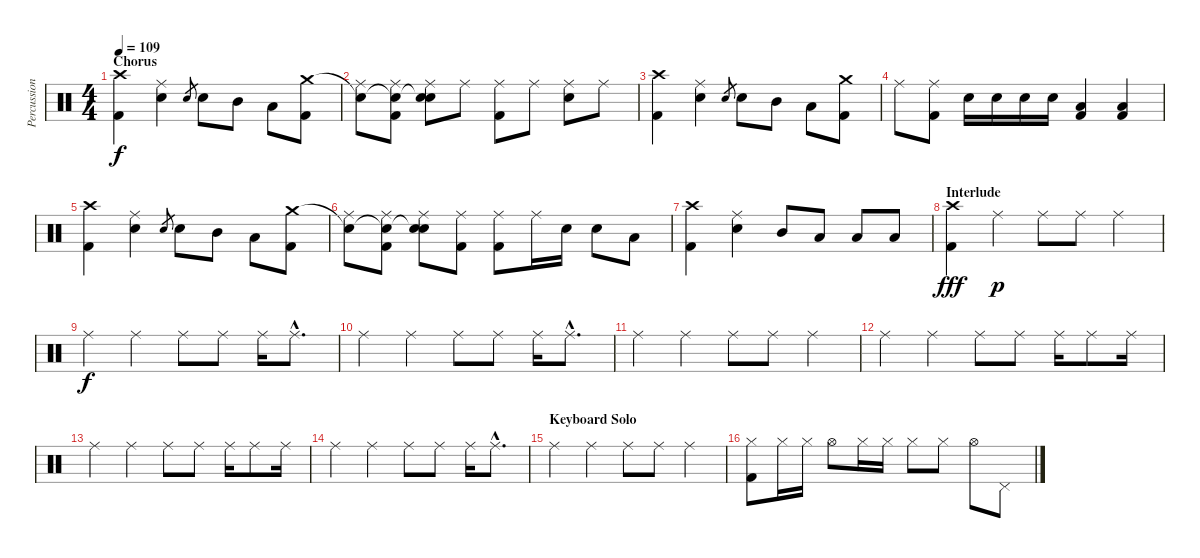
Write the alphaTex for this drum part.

\track ("Percussion" "Percussion") {instrument percussion}
\staff {score}
\articulation defaults
\ts (4 4)
\section ("" "Chorus")
\tempo 109
\clef neutral
\ks c
("Crash high (hit)" "Kick (hit) 2").4{dy f} ("Ride (middle)" "Electric Snare (hit)").4 "Electric Snare (hit)".8{gr} "Electric Snare (hit)".8 "Mid Tom (hit)".8 "Low Tom (hit)".8 ("Crash medium (hit)" "Kick (hit) 2").8 |
("Snare (hit)"{t} "Ride (middle)").8 ("Snare (hit)"{t} "Ride (middle)" "Kick (hit) 2").8 ("Snare (hit)"{t} "Ride (middle)" "Electric Snare (hit)").8 "Ride (middle)".8 ("Ride (middle)" "Kick (hit) 2").8 "Ride (middle)".8 ("Ride (middle)" "Electric Snare (hit)").8 "Ride (middle)".8 |
("Crash high (hit)" "Kick (hit) 2").4 ("Ride (middle)" "Electric Snare (hit)").4 "Electric Snare (hit)".8{gr} "Electric Snare (hit)".8 "Mid Tom (hit)".8 "Low Tom (hit)".8 ("Crash medium (hit)" "Kick (hit) 2").8 |
"Ride (middle)".8 ("Ride (middle)" "Kick (hit) 2").8 "Electric Snare (hit)".16 "Electric Snare (hit)".16 "Electric Snare (hit)".16 "Electric Snare (hit)".16 ("Low Tom (hit)" "Kick (hit) 2").4 ("Low Tom (hit)" "Kick (hit) 2").4 |
("Crash high (hit)" "Kick (hit) 2").4 ("Ride (middle)" "Electric Snare (hit)").4 "Electric Snare (hit)".8{gr} "Electric Snare (hit)".8 "Mid Tom (hit)".8 "Low Tom (hit)".8 ("Crash medium (hit)" "Kick (hit) 2").8 |
("Snare (hit)"{t} "Ride (middle)").8 ("Snare (hit)"{t} "Ride (middle)" "Kick (hit) 2").8 ("Snare (hit)"{t} "Ride (middle)" "Electric Snare (hit)").8 ("Ride (middle)" "Kick (hit) 2").8 ("Ride (middle)" "Kick (hit) 2").8 "Ride (middle)".16 "Electric Snare (hit)".16 "Electric Snare (hit)".8 "Low Tom (hit)".8 |
("Crash high (hit)" "Kick (hit) 2").4 ("Ride (middle)" "Electric Snare (hit)").4 "Mid Tom (hit)".8 "Low Tom (hit)".8 "Low Tom (hit)".8 "Low Tom (hit)".8 |
\section ("" "Interlude")
("Crash high (hit)" "Kick (hit) 2").4{dy fff} "Ride (middle)".4{dy p} "Ride (middle)".8 "Ride (middle)".8 "Ride (middle)".4 |
"Ride (middle)".4{dy f volume 6} "Ride (middle)".4 "Ride (middle)".8 "Ride (middle)".8 "Ride (middle)".16 "Ride (middle)"{hac}.8{d} |
"Ride (middle)".4 "Ride (middle)".4 "Ride (middle)".8 "Ride (middle)".8 "Ride (middle)".16 "Ride (middle)"{hac}.8{d} |
"Ride (middle)".4 "Ride (middle)".4 "Ride (middle)".8 "Ride (middle)".8 "Ride (middle)".4 |
"Ride (middle)".4 "Ride (middle)".4 "Ride (middle)".8 "Ride (middle)".8 "Ride (middle)".16 "Ride (middle)".8 "Ride (middle)".16 |
"Ride (middle)".4 "Ride (middle)".4 "Ride (middle)".8 "Ride (middle)".8 "Ride (middle)".16 "Ride (middle)".8 "Ride (middle)".16 |
"Ride (middle)".4 "Ride (middle)".4 "Ride (middle)".8 "Ride (middle)".8 "Ride (middle)".16 "Ride (middle)"{hac}.8{d} |
\section ("" "Keyboard Solo")
"Ride (middle)".4 "Ride (middle)".4 "Ride (middle)".8 "Ride (middle)".8 "Ride (middle)".4 |
("Hi-Hat (closed)" "Kick (hit) 2").8{volume 7} "Hi-Hat (closed)".16 "Hi-Hat (closed)".16 "Hi-Hat (open)".8 "Hi-Hat (closed)".16 "Hi-Hat (closed)".16 "Hi-Hat (closed)".8 "Hi-Hat (closed)".8 "Hi-Hat (open)".8 "Pedal Hi-Hat (hit)".8
